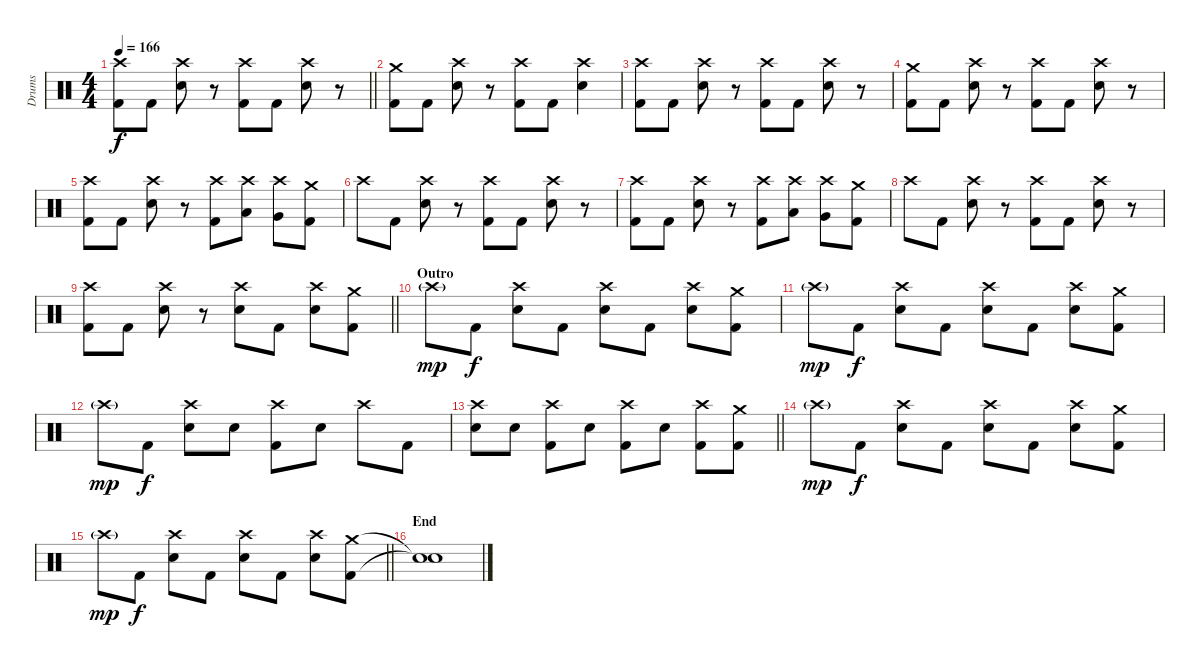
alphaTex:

\track ("Drums" "Drums") {instrument percussion}
\staff {score}
\articulation defaults
\ts (4 4)
\tempo 166
\clef neutral
\barLineRight lightlight
\ks c
("Crash high (hit)" "Kick (hit) 2").8{dy f} "Kick (hit) 2".8 ("Crash high (hit)" "Electric Snare (hit)").8 r.8 ("Crash high (hit)" "Kick (hit) 2").8 "Kick (hit) 2".8 ("Crash high (hit)" "Electric Snare (hit)").8 r.8 |
("Crash medium (hit)" "Kick (hit) 2").8 "Kick (hit) 2".8 ("Crash high (hit)" "Electric Snare (hit)").8 r.8 ("Crash high (hit)" "Kick (hit) 2").8 "Kick (hit) 2".8 ("Crash high (hit)" "Electric Snare (hit)").4 |
("Crash high (hit)" "Kick (hit) 2").8 "Kick (hit) 2".8 ("Crash high (hit)" "Electric Snare (hit)").8 r.8 ("Crash high (hit)" "Kick (hit) 2").8 "Kick (hit) 2".8 ("Crash high (hit)" "Electric Snare (hit)").8 r.8 |
("Crash medium (hit)" "Kick (hit) 2").8 "Kick (hit) 2".8 ("Crash high (hit)" "Electric Snare (hit)").8 r.8 ("Crash high (hit)" "Kick (hit) 2").8 "Kick (hit) 2".8 ("Crash high (hit)" "Electric Snare (hit)").8 r.8 |
("Crash high (hit)" "Kick (hit) 2").8 "Kick (hit) 2".8 ("Crash high (hit)" "Electric Snare (hit)").8 r.8 ("Crash high (hit)" "Kick (hit) 2").8 ("Crash high (hit)" "Low Tom (hit)").8 ("Crash high (hit)" "Very Low Tom (hit)").8 ("Crash medium (hit)" "Kick (hit) 2").8 |
"Crash high (hit)".8 "Kick (hit) 2".8 ("Crash high (hit)" "Electric Snare (hit)").8 r.8 ("Crash high (hit)" "Kick (hit) 2").8 "Kick (hit) 2".8 ("Crash high (hit)" "Electric Snare (hit)").8 r.8 |
("Crash high (hit)" "Kick (hit) 2").8 "Kick (hit) 2".8 ("Crash high (hit)" "Electric Snare (hit)").8 r.8 ("Crash high (hit)" "Kick (hit) 2").8 ("Crash high (hit)" "Low Tom (hit)").8 ("Crash high (hit)" "Very Low Tom (hit)").8 ("Crash medium (hit)" "Kick (hit) 2").8 |
"Crash high (hit)".8 "Kick (hit) 2".8 ("Crash high (hit)" "Electric Snare (hit)").8 r.8 ("Crash high (hit)" "Kick (hit) 2").8 "Kick (hit) 2".8 ("Crash high (hit)" "Electric Snare (hit)").8 r.8 |
\barLineRight lightlight
("Crash high (hit)" "Kick (hit) 2").8 "Kick (hit) 2".8 ("Crash high (hit)" "Electric Snare (hit)").8 r.8 ("Crash high (hit)" "Electric Snare (hit)").8 "Kick (hit) 2".8 ("Crash high (hit)" "Electric Snare (hit)").8 ("Crash medium (hit)" "Kick (hit) 2").8 |
\section ("" "Outro")
"Crash high (hit)"{g}.8{dy mp} "Kick (hit) 2".8{dy f} ("Crash high (hit)" "Electric Snare (hit)").8 "Kick (hit) 2".8 ("Crash high (hit)" "Electric Snare (hit)").8 "Kick (hit) 2".8 ("Crash high (hit)" "Electric Snare (hit)").8 ("Crash medium (hit)" "Kick (hit) 2").8 |
"Crash high (hit)"{g}.8{dy mp} "Kick (hit) 2".8{dy f} ("Crash high (hit)" "Electric Snare (hit)").8 "Kick (hit) 2".8 ("Crash high (hit)" "Electric Snare (hit)").8 "Kick (hit) 2".8 ("Crash high (hit)" "Electric Snare (hit)").8 ("Crash medium (hit)" "Kick (hit) 2").8 |
"Crash high (hit)"{g}.8{dy mp} "Kick (hit) 2".8{dy f} ("Crash high (hit)" "Electric Snare (hit)").8 "Electric Snare (hit)".8 ("Crash high (hit)" "Kick (hit) 2").8 "Electric Snare (hit)".8 "Crash high (hit)".8 "Kick (hit) 2".8 |
\barLineRight lightlight
("Crash high (hit)" "Electric Snare (hit)").8 "Electric Snare (hit)".8 ("Crash high (hit)" "Kick (hit) 2").8 "Electric Snare (hit)".8 ("Crash high (hit)" "Kick (hit) 2").8 "Electric Snare (hit)".8 ("Crash high (hit)" "Kick (hit) 2").8 ("Crash medium (hit)" "Kick (hit) 2").8 |
"Crash high (hit)"{g}.8{dy mp} "Kick (hit) 2".8{dy f} ("Crash high (hit)" "Electric Snare (hit)").8 "Kick (hit) 2".8 ("Crash high (hit)" "Electric Snare (hit)").8 "Kick (hit) 2".8 ("Crash high (hit)" "Electric Snare (hit)").8 ("Crash medium (hit)" "Kick (hit) 2").8 |
\barLineRight lightlight "Crash high (hit)"{g}.8{dy mp} "Kick (hit) 2".8{dy f}
("Crash high (hit)" "Electric Snare (hit)").8 "Kick (hit) 2".8 ("Crash high (hit)" "Electric Snare (hit)").8 "Kick (hit) 2".8 ("Crash high (hit)" "Electric Snare (hit)").8 ("Crash medium (hit)" "Kick (hit) 2").8 |
\section ("" "End")
("Snare (hit)"{t} "Snare (hit)"{t}).1
